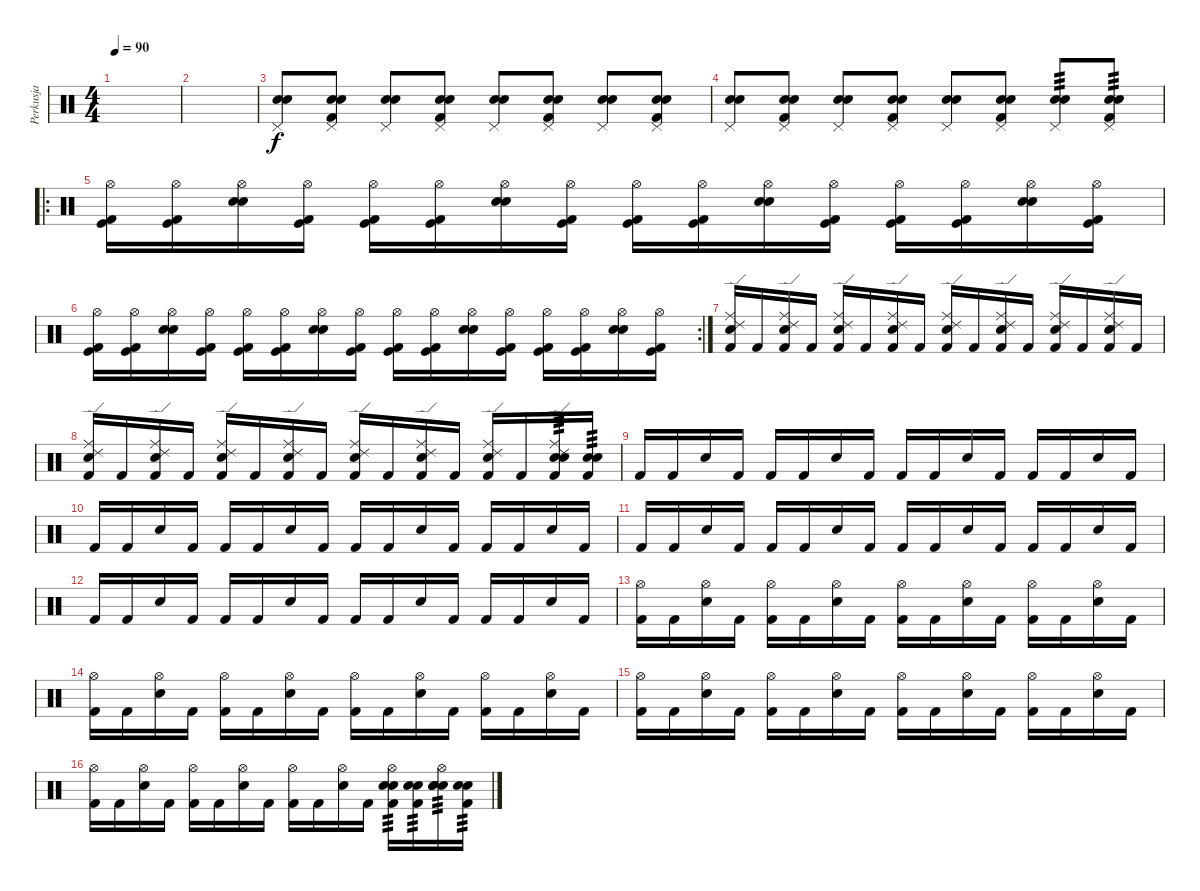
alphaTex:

\track ("Perkusja" "Perkusja") {instrument percussion}
\staff {score}
\articulation defaults
\ts (4 4)
\tempo 90
\clef neutral
\ks c
|
|
("Snare (hit) 2" "Pedal Hi-Hat (hit)" "Electric Snare (hit)").8 ("Snare (hit) 2" "Pedal Hi-Hat (hit)" "Electric Snare (hit)" "Kick (hit) 2").8 ("Snare (hit) 2" "Pedal Hi-Hat (hit)" "Electric Snare (hit)").8 ("Snare (hit) 2" "Pedal Hi-Hat (hit)" "Electric Snare (hit)" "Kick (hit) 2").8 ("Snare (hit) 2" "Pedal Hi-Hat (hit)" "Electric Snare (hit)").8 ("Snare (hit) 2" "Pedal Hi-Hat (hit)" "Electric Snare (hit)" "Kick (hit) 2").8 ("Snare (hit) 2" "Pedal Hi-Hat (hit)" "Electric Snare (hit)").8 ("Snare (hit) 2" "Pedal Hi-Hat (hit)" "Electric Snare (hit)" "Kick (hit) 2").8 |
("Snare (hit) 2" "Pedal Hi-Hat (hit)" "Electric Snare (hit)").8 ("Snare (hit) 2" "Pedal Hi-Hat (hit)" "Electric Snare (hit)" "Kick (hit) 2").8 ("Snare (hit) 2" "Pedal Hi-Hat (hit)" "Electric Snare (hit)").8 ("Snare (hit) 2" "Pedal Hi-Hat (hit)" "Electric Snare (hit)" "Kick (hit) 2").8 ("Snare (hit) 2" "Pedal Hi-Hat (hit)" "Electric Snare (hit)").8 ("Snare (hit) 2" "Pedal Hi-Hat (hit)" "Electric Snare (hit)" "Kick (hit) 2").8 ("Snare (hit) 2" "Pedal Hi-Hat (hit)" "Electric Snare (hit)").8{tp 3} ("Snare (hit) 2" "Pedal Hi-Hat (hit)" "Electric Snare (hit)" "Kick (hit) 2").8{tp 3} |
\ro
("Hi-Hat (open)" "Kick (hit) 2" "Kick (hit)").16 ("Hi-Hat (open)" "Kick (hit) 2" "Kick (hit)").16 ("Hi-Hat (open)" "Snare (hit) 2" "Electric Snare (hit)").16 ("Hi-Hat (open)" "Kick (hit) 2" "Kick (hit)").16 ("Hi-Hat (open)" "Kick (hit) 2" "Kick (hit)").16 ("Hi-Hat (open)" "Kick (hit) 2" "Kick (hit)").16 ("Hi-Hat (open)" "Snare (hit) 2" "Electric Snare (hit)").16 ("Hi-Hat (open)" "Kick (hit) 2" "Kick (hit)").16 ("Hi-Hat (open)" "Kick (hit) 2" "Kick (hit)").16 ("Hi-Hat (open)" "Kick (hit) 2" "Kick (hit)").16 ("Hi-Hat (open)" "Snare (hit) 2" "Electric Snare (hit)").16 ("Hi-Hat (open)" "Kick (hit) 2" "Kick (hit)").16 ("Hi-Hat (open)" "Kick (hit) 2" "Kick (hit)").16 ("Hi-Hat (open)" "Kick (hit) 2" "Kick (hit)").16 ("Hi-Hat (open)" "Snare (hit) 2" "Electric Snare (hit)").16 ("Hi-Hat (open)" "Kick (hit) 2" "Kick (hit)").16 |
\rc 2
("Hi-Hat (open)" "Kick (hit) 2" "Kick (hit)").16 ("Hi-Hat (open)" "Kick (hit) 2" "Kick (hit)").16 ("Hi-Hat (open)" "Snare (hit) 2" "Electric Snare (hit)").16 ("Hi-Hat (open)" "Kick (hit) 2" "Kick (hit)").16 ("Hi-Hat (open)" "Kick (hit) 2" "Kick (hit)").16 ("Hi-Hat (open)" "Kick (hit) 2" "Kick (hit)").16 ("Hi-Hat (open)" "Snare (hit) 2" "Electric Snare (hit)").16 ("Hi-Hat (open)" "Kick (hit) 2" "Kick (hit)").16 ("Hi-Hat (open)" "Kick (hit) 2" "Kick (hit)").16 ("Hi-Hat (open)" "Kick (hit) 2" "Kick (hit)").16 ("Hi-Hat (open)" "Snare (hit) 2" "Electric Snare (hit)").16 ("Hi-Hat (open)" "Kick (hit) 2" "Kick (hit)").16 ("Hi-Hat (open)" "Kick (hit) 2" "Kick (hit)").16 ("Hi-Hat (open)" "Kick (hit) 2" "Kick (hit)").16 ("Hi-Hat (open)" "Snare (hit) 2" "Electric Snare (hit)").16 ("Hi-Hat (open)" "Kick (hit) 2" "Kick (hit)").16 |
("Kick (hit) 2" "Ride (middle)" "Snare (hit) 2" "Ride (edge) 2").16 "Kick (hit) 2".16 ("Kick (hit) 2" "Ride (middle)" "Snare (hit) 2" "Ride (edge) 2").16 "Kick (hit) 2".16 ("Kick (hit) 2" "Ride (middle)" "Snare (hit) 2" "Ride (edge) 2").16 "Kick (hit) 2".16 ("Kick (hit) 2" "Ride (middle)" "Snare (hit) 2" "Ride (edge) 2").16 "Kick (hit) 2".16 ("Kick (hit) 2" "Ride (middle)" "Snare (hit) 2" "Ride (edge) 2").16 "Kick (hit) 2".16 ("Kick (hit) 2" "Ride (middle)" "Snare (hit) 2" "Ride (edge) 2").16 "Kick (hit) 2".16 ("Kick (hit) 2" "Ride (middle)" "Snare (hit) 2" "Ride (edge) 2").16 "Kick (hit) 2".16 ("Kick (hit) 2" "Ride (middle)" "Snare (hit) 2" "Ride (edge) 2").16 "Kick (hit) 2".16 |
("Kick (hit) 2" "Ride (middle)" "Snare (hit) 2" "Ride (edge) 2").16 "Kick (hit) 2".16 ("Kick (hit) 2" "Ride (middle)" "Snare (hit) 2" "Ride (edge) 2").16 "Kick (hit) 2".16 ("Kick (hit) 2" "Ride (middle)" "Snare (hit) 2" "Ride (edge) 2").16 "Kick (hit) 2".16 ("Kick (hit) 2" "Ride (middle)" "Snare (hit) 2" "Ride (edge) 2").16 "Kick (hit) 2".16 ("Kick (hit) 2" "Ride (middle)" "Snare (hit) 2" "Ride (edge) 2").16 "Kick (hit) 2".16 ("Kick (hit) 2" "Ride (middle)" "Snare (hit) 2" "Ride (edge) 2").16 "Kick (hit) 2".16 ("Kick (hit) 2" "Ride (middle)" "Snare (hit) 2" "Ride (edge) 2").16 "Kick (hit) 2".16 ("Kick (hit) 2" "Ride (middle)" "Snare (hit) 2" "Electric Snare (hit)" "Ride (edge) 2").16{tp 3} ("Kick (hit) 2" "Snare (hit) 2" "Electric Snare (hit)").16{tp 3} |
"Kick (hit) 2".16 "Kick (hit) 2".16 "Snare (hit) 2".16 "Kick (hit) 2".16 "Kick (hit) 2".16 "Kick (hit) 2".16 "Snare (hit) 2".16 "Kick (hit) 2".16 "Kick (hit) 2".16 "Kick (hit) 2".16 "Snare (hit) 2".16 "Kick (hit) 2".16 "Kick (hit) 2".16 "Kick (hit) 2".16 "Snare (hit) 2".16 "Kick (hit) 2".16 |
"Kick (hit) 2".16 "Kick (hit) 2".16 "Snare (hit) 2".16 "Kick (hit) 2".16 "Kick (hit) 2".16 "Kick (hit) 2".16 "Snare (hit) 2".16 "Kick (hit) 2".16 "Kick (hit) 2".16 "Kick (hit) 2".16 "Snare (hit) 2".16 "Kick (hit) 2".16 "Kick (hit) 2".16 "Kick (hit) 2".16 "Snare (hit) 2".16 "Kick (hit) 2".16 |
"Kick (hit) 2".16 "Kick (hit) 2".16 "Snare (hit) 2".16 "Kick (hit) 2".16 "Kick (hit) 2".16 "Kick (hit) 2".16 "Snare (hit) 2".16 "Kick (hit) 2".16 "Kick (hit) 2".16 "Kick (hit) 2".16 "Snare (hit) 2".16 "Kick (hit) 2".16 "Kick (hit) 2".16 "Kick (hit) 2".16 "Snare (hit) 2".16 "Kick (hit) 2".16 |
"Kick (hit) 2".16 "Kick (hit) 2".16 "Snare (hit) 2".16 "Kick (hit) 2".16 "Kick (hit) 2".16 "Kick (hit) 2".16 "Snare (hit) 2".16 "Kick (hit) 2".16 "Kick (hit) 2".16 "Kick (hit) 2".16 "Snare (hit) 2".16 "Kick (hit) 2".16 "Kick (hit) 2".16 "Kick (hit) 2".16 "Snare (hit) 2".16 "Kick (hit) 2".16 |
("Kick (hit) 2" "Hi-Hat (open)").16 "Kick (hit) 2".16 ("Snare (hit) 2" "Hi-Hat (open)").16 "Kick (hit) 2".16 ("Kick (hit) 2" "Hi-Hat (open)").16 "Kick (hit) 2".16 ("Snare (hit) 2" "Hi-Hat (open)").16 "Kick (hit) 2".16 ("Kick (hit) 2" "Hi-Hat (open)").16 "Kick (hit) 2".16 ("Snare (hit) 2" "Hi-Hat (open)").16 "Kick (hit) 2".16 ("Kick (hit) 2" "Hi-Hat (open)").16 "Kick (hit) 2".16 ("Snare (hit) 2" "Hi-Hat (open)").16 "Kick (hit) 2".16 |
("Kick (hit) 2" "Hi-Hat (open)").16 "Kick (hit) 2".16 ("Snare (hit) 2" "Hi-Hat (open)").16 "Kick (hit) 2".16 ("Kick (hit) 2" "Hi-Hat (open)").16 "Kick (hit) 2".16 ("Snare (hit) 2" "Hi-Hat (open)").16 "Kick (hit) 2".16 ("Kick (hit) 2" "Hi-Hat (open)").16 "Kick (hit) 2".16 ("Snare (hit) 2" "Hi-Hat (open)").16 "Kick (hit) 2".16 ("Kick (hit) 2" "Hi-Hat (open)").16 "Kick (hit) 2".16 ("Snare (hit) 2" "Hi-Hat (open)").16 "Kick (hit) 2".16 |
("Kick (hit) 2" "Hi-Hat (open)").16 "Kick (hit) 2".16 ("Snare (hit) 2" "Hi-Hat (open)").16 "Kick (hit) 2".16 ("Kick (hit) 2" "Hi-Hat (open)").16 "Kick (hit) 2".16 ("Snare (hit) 2" "Hi-Hat (open)").16 "Kick (hit) 2".16 ("Kick (hit) 2" "Hi-Hat (open)").16 "Kick (hit) 2".16 ("Snare (hit) 2" "Hi-Hat (open)").16 "Kick (hit) 2".16 ("Kick (hit) 2" "Hi-Hat (open)").16 "Kick (hit) 2".16 ("Snare (hit) 2" "Hi-Hat (open)").16 "Kick (hit) 2".16 |
("Kick (hit) 2" "Hi-Hat (open)").16 "Kick (hit) 2".16 ("Snare (hit) 2" "Hi-Hat (open)").16 "Kick (hit) 2".16 ("Kick (hit) 2" "Hi-Hat (open)").16 "Kick (hit) 2".16 ("Snare (hit) 2" "Hi-Hat (open)").16 "Kick (hit) 2".16 ("Kick (hit) 2" "Hi-Hat (open)").16 "Kick (hit) 2".16 ("Snare (hit) 2" "Hi-Hat (open)").16 "Kick (hit) 2".16 ("Kick (hit) 2" "Hi-Hat (open)" "Snare (hit) 2" "Electric Snare (hit)").16{tp 3} ("Kick (hit) 2" "Snare (hit) 2" "Electric Snare (hit)").16{tp 3} ("Snare (hit) 2" "Hi-Hat (open)" "Snare (hit) 2" "Electric Snare (hit)").16{tp 3} ("Kick (hit) 2" "Snare (hit) 2" "Electric Snare (hit)").16{tp 3}
